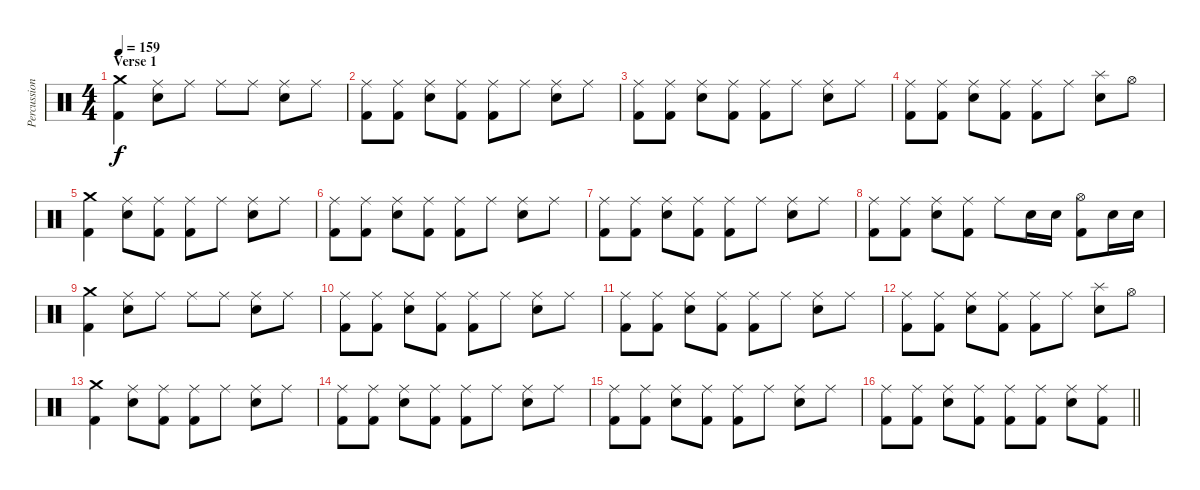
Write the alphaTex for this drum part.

\track ("Percussion" "Percussion") {instrument percussion}
\staff {score}
\articulation defaults
\ts (4 4)
\section ("" "Verse 1")
\tempo 159
\clef neutral
\ks c
("Crash medium (hit)" "Kick (hit) 2").4{dy f} ("Ride (middle)" "Electric Snare (hit)").8 "Ride (middle)".8 "Ride (middle)".8 "Ride (middle)".8 ("Ride (middle)" "Electric Snare (hit)").8 "Ride (middle)".8 |
("Ride (middle)" "Kick (hit) 2").8 ("Ride (middle)" "Kick (hit) 2").8 ("Ride (middle)" "Electric Snare (hit)").8 ("Ride (middle)" "Kick (hit) 2").8 ("Ride (middle)" "Kick (hit) 2").8 "Ride (middle)".8 ("Ride (middle)" "Electric Snare (hit)").8 "Ride (middle)".8 |
("Ride (middle)" "Kick (hit) 2").8 ("Ride (middle)" "Kick (hit) 2").8 ("Ride (middle)" "Electric Snare (hit)").8 ("Ride (middle)" "Kick (hit) 2").8 ("Ride (middle)" "Kick (hit) 2").8 "Ride (middle)".8 ("Ride (middle)" "Electric Snare (hit)").8 "Ride (middle)".8 |
("Ride (middle)" "Kick (hit) 2").8 ("Ride (middle)" "Kick (hit) 2").8 ("Ride (middle)" "Electric Snare (hit)").8 ("Ride (middle)" "Kick (hit) 2").8 ("Ride (middle)" "Kick (hit) 2").8 "Ride (middle)".8 ("Splash (hit)" "Electric Snare (hit)").8 "Hi-Hat (open)".8 |
("Crash medium (hit)" "Kick (hit) 2").4 ("Ride (middle)" "Electric Snare (hit)").8 ("Ride (middle)" "Kick (hit) 2").8 ("Ride (middle)" "Kick (hit) 2").8 "Ride (middle)".8 ("Ride (middle)" "Electric Snare (hit)").8 "Ride (middle)".8 |
("Ride (middle)" "Kick (hit) 2").8 ("Ride (middle)" "Kick (hit) 2").8 ("Ride (middle)" "Electric Snare (hit)").8 ("Ride (middle)" "Kick (hit) 2").8 ("Ride (middle)" "Kick (hit) 2").8 "Ride (middle)".8 ("Ride (middle)" "Electric Snare (hit)").8 "Ride (middle)".8 |
("Ride (middle)" "Kick (hit) 2").8 ("Ride (middle)" "Kick (hit) 2").8 ("Ride (middle)" "Electric Snare (hit)").8 ("Ride (middle)" "Kick (hit) 2").8 ("Ride (middle)" "Kick (hit) 2").8 "Ride (middle)".8 ("Ride (middle)" "Electric Snare (hit)").8 "Ride (middle)".8 |
("Ride (middle)" "Kick (hit) 2").8 ("Ride (middle)" "Kick (hit) 2").8 ("Ride (middle)" "Electric Snare (hit)").8 ("Ride (middle)" "Kick (hit) 2").8 "Ride (middle)".8 "Electric Snare (hit)".16 "Electric Snare (hit)".16 ("Hi-Hat (open)" "Kick (hit) 2").8 "Electric Snare (hit)".16 "Electric Snare (hit)".16 |
("Crash medium (hit)" "Kick (hit) 2").4 ("Ride (middle)" "Electric Snare (hit)").8 "Ride (middle)".8 "Ride (middle)".8 "Ride (middle)".8 ("Ride (middle)" "Electric Snare (hit)").8 "Ride (middle)".8 |
("Ride (middle)" "Kick (hit) 2").8 ("Ride (middle)" "Kick (hit) 2").8 ("Ride (middle)" "Electric Snare (hit)").8 ("Ride (middle)" "Kick (hit) 2").8 ("Ride (middle)" "Kick (hit) 2").8 "Ride (middle)".8 ("Ride (middle)" "Electric Snare (hit)").8 "Ride (middle)".8 |
("Ride (middle)" "Kick (hit) 2").8 ("Ride (middle)" "Kick (hit) 2").8 ("Ride (middle)" "Electric Snare (hit)").8 ("Ride (middle)" "Kick (hit) 2").8 ("Ride (middle)" "Kick (hit) 2").8 "Ride (middle)".8 ("Ride (middle)" "Electric Snare (hit)").8 "Ride (middle)".8 |
("Ride (middle)" "Kick (hit) 2").8 ("Ride (middle)" "Kick (hit) 2").8 ("Ride (middle)" "Electric Snare (hit)").8 ("Ride (middle)" "Kick (hit) 2").8 ("Ride (middle)" "Kick (hit) 2").8 "Ride (middle)".8 ("Splash (hit)" "Electric Snare (hit)").8 "Hi-Hat (open)".8 |
("Crash medium (hit)" "Kick (hit) 2").4 ("Ride (middle)" "Electric Snare (hit)").8 ("Ride (middle)" "Kick (hit) 2").8 ("Ride (middle)" "Kick (hit) 2").8 "Ride (middle)".8 ("Ride (middle)" "Electric Snare (hit)").8 "Ride (middle)".8 |
("Ride (middle)" "Kick (hit) 2").8 ("Ride (middle)" "Kick (hit) 2").8 ("Ride (middle)" "Electric Snare (hit)").8 ("Ride (middle)" "Kick (hit) 2").8 ("Ride (middle)" "Kick (hit) 2").8 "Ride (middle)".8 ("Ride (middle)" "Electric Snare (hit)").8 "Ride (middle)".8 |
("Ride (middle)" "Kick (hit) 2").8 ("Ride (middle)" "Kick (hit) 2").8 ("Ride (middle)" "Electric Snare (hit)").8 ("Ride (middle)" "Kick (hit) 2").8 ("Ride (middle)" "Kick (hit) 2").8 "Ride (middle)".8 ("Ride (middle)" "Electric Snare (hit)").8 "Ride (middle)".8 |
\barLineRight lightlight
("Ride (middle)" "Kick (hit) 2").8 ("Ride (middle)" "Kick (hit) 2").8 ("Ride (middle)" "Electric Snare (hit)").8 ("Ride (middle)" "Kick (hit) 2").8 ("Ride (middle)" "Kick (hit) 2").8 ("Ride (middle)" "Kick (hit) 2").8 ("Ride (middle)" "Electric Snare (hit)").8 ("Ride (middle)" "Kick (hit) 2").8
